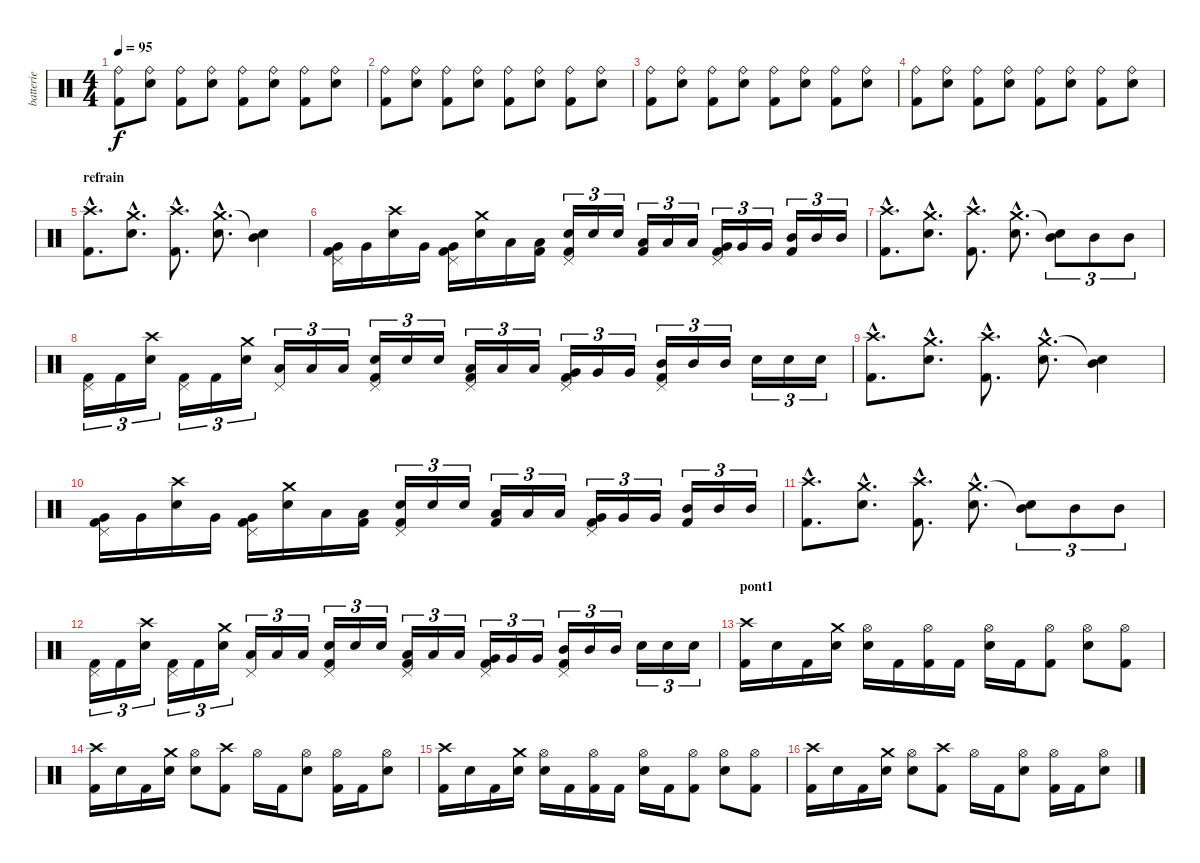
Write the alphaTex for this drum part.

\track ("batterie" "batterie") {instrument percussion}
\staff {score}
\articulation defaults
\ts (4 4)
\tempo 95
\clef neutral
\ks c
("Kick (hit) 2" "Ride (bell)").8{dy f} ("Electric Snare (hit)" "Ride (bell)").8 ("Kick (hit) 2" "Ride (bell)").8 ("Electric Snare (hit)" "Ride (bell)").8 ("Kick (hit) 2" "Ride (bell)").8 ("Electric Snare (hit)" "Ride (bell)").8 ("Kick (hit) 2" "Ride (bell)").8 ("Electric Snare (hit)" "Ride (bell)").8 |
("Kick (hit) 2" "Ride (bell)").8 ("Electric Snare (hit)" "Ride (bell)").8 ("Kick (hit) 2" "Ride (bell)").8 ("Electric Snare (hit)" "Ride (bell)").8 ("Kick (hit) 2" "Ride (bell)").8 ("Electric Snare (hit)" "Ride (bell)").8 ("Kick (hit) 2" "Ride (bell)").8 ("Electric Snare (hit)" "Ride (bell)").8 |
("Kick (hit) 2" "Ride (bell)").8 ("Electric Snare (hit)" "Ride (bell)").8 ("Kick (hit) 2" "Ride (bell)").8 ("Electric Snare (hit)" "Ride (bell)").8 ("Kick (hit) 2" "Ride (bell)").8 ("Electric Snare (hit)" "Ride (bell)").8 ("Kick (hit) 2" "Ride (bell)").8 ("Electric Snare (hit)" "Ride (bell)").8 |
("Kick (hit) 2" "Ride (bell)").8 ("Electric Snare (hit)" "Ride (bell)").8 ("Kick (hit) 2" "Ride (bell)").8 ("Electric Snare (hit)" "Ride (bell)").8 ("Kick (hit) 2" "Ride (bell)").8 ("Electric Snare (hit)" "Ride (bell)").8 ("Kick (hit) 2" "Ride (bell)").8 ("Electric Snare (hit)" "Ride (bell)").8 |
\section ("" "refrain")
("Crash high (hit)"{hac} "Kick (hit) 2"{hac}).8{d} ("Crash medium (hit)"{hac} "Electric Snare (hit)"{hac}).8{d} ("Crash high (hit)"{hac} "Kick (hit) 2"{hac}).8{d} ("Crash medium (hit)"{hac} "Electric Snare (hit)"{hac}).8{d} ("Snare (hit)"{t} "Mid Tom (hit)").4 |
("Very Low Tom (hit)" "Kick (hit) 2" "Pedal Hi-Hat (hit)").16 "Very Low Tom (hit)".16 ("Crash high (hit)" "Electric Snare (hit)").16 "Very Low Tom (hit)".16 ("Very Low Tom (hit)" "Kick (hit) 2" "Pedal Hi-Hat (hit)").16 ("Crash medium (hit)" "Electric Snare (hit)").16 "Low Tom (hit)".16 ("Low Tom (hit)" "Kick (hit) 2").16 ("Electric Snare (hit)" "Kick (hit) 2" "Pedal Hi-Hat (hit)").16{tu (3 2)} "Electric Snare (hit)".16{tu (3 2)} "Electric Snare (hit)".16{tu (3 2)} ("Low Tom (hit)" "Kick (hit) 2").16{tu (3 2)} "Low Tom (hit)".16{tu (3 2)} "Low Tom (hit)".16{tu (3 2)} ("Very Low Tom (hit)" "Kick (hit) 2" "Pedal Hi-Hat (hit)").16{tu (3 2)} "Very Low Tom (hit)".16{tu (3 2)} "Very Low Tom (hit)".16{tu (3 2)} ("Mid Tom (hit)" "Kick (hit) 2").16{tu (3 2)} "Mid Tom (hit)".16{tu (3 2)} "Mid Tom (hit)".16{tu (3 2)} |
("Crash high (hit)"{hac} "Kick (hit) 2"{hac}).8{d} ("Crash medium (hit)"{hac} "Electric Snare (hit)"{hac}).8{d} ("Crash high (hit)"{hac} "Kick (hit) 2"{hac}).8{d} ("Crash medium (hit)"{hac} "Electric Snare (hit)"{hac}).8{d} ("Snare (hit)"{t} "Mid Tom (hit)").8{tu (3 2)} "Mid Tom (hit)".8{tu (3 2)} "Mid Tom (hit)".8{tu (3 2)} |
("Kick (hit) 2" "Pedal Hi-Hat (hit)").16{tu (3 2)} "Kick (hit) 2".16{tu (3 2)} ("Crash high (hit)" "Electric Snare (hit)").16{tu (3 2)} ("Kick (hit) 2" "Pedal Hi-Hat (hit)").16{tu (3 2)} "Kick (hit) 2".16{tu (3 2)} ("Crash medium (hit)" "Electric Snare (hit)").16{tu (3 2)} ("Low Tom (hit)" "Pedal Hi-Hat (hit)").16{tu (3 2)} "Low Tom (hit)".16{tu (3 2)} "Low Tom (hit)".16{tu (3 2)} ("Electric Snare (hit)" "Kick (hit) 2" "Pedal Hi-Hat (hit)").16{tu (3 2)} "Electric Snare (hit)".16{tu (3 2)} "Electric Snare (hit)".16{tu (3 2)} ("Low Tom (hit)" "Kick (hit) 2" "Pedal Hi-Hat (hit)").16{tu (3 2)} "Low Tom (hit)".16{tu (3 2)} "Low Tom (hit)".16{tu (3 2)} ("Very Low Tom (hit)" "Kick (hit) 2" "Pedal Hi-Hat (hit)").16{tu (3 2)} "Very Low Tom (hit)".16{tu (3 2)} "Very Low Tom (hit)".16{tu (3 2)} ("Mid Tom (hit)" "Kick (hit) 2" "Pedal Hi-Hat (hit)").16{tu (3 2)} "Mid Tom (hit)".16{tu (3 2)} "Mid Tom (hit)".16{tu (3 2)} "Electric Snare (hit)".16{tu (3 2)} "Electric Snare (hit)".16{tu (3 2)} "Electric Snare (hit)".16{tu (3 2)} |
("Crash high (hit)"{hac} "Kick (hit) 2"{hac}).8{d} ("Crash medium (hit)"{hac} "Electric Snare (hit)"{hac}).8{d} ("Crash high (hit)"{hac} "Kick (hit) 2"{hac}).8{d} ("Crash medium (hit)"{hac} "Electric Snare (hit)"{hac}).8{d} ("Snare (hit)"{t} "Mid Tom (hit)").4 |
("Very Low Tom (hit)" "Kick (hit) 2" "Pedal Hi-Hat (hit)").16 "Very Low Tom (hit)".16 ("Crash high (hit)" "Electric Snare (hit)").16 "Very Low Tom (hit)".16 ("Very Low Tom (hit)" "Kick (hit) 2" "Pedal Hi-Hat (hit)").16 ("Crash medium (hit)" "Electric Snare (hit)").16 "Low Tom (hit)".16 ("Low Tom (hit)" "Kick (hit) 2").16 ("Electric Snare (hit)" "Kick (hit) 2" "Pedal Hi-Hat (hit)").16{tu (3 2)} "Electric Snare (hit)".16{tu (3 2)} "Electric Snare (hit)".16{tu (3 2)} ("Low Tom (hit)" "Kick (hit) 2").16{tu (3 2)} "Low Tom (hit)".16{tu (3 2)} "Low Tom (hit)".16{tu (3 2)} ("Very Low Tom (hit)" "Kick (hit) 2" "Pedal Hi-Hat (hit)").16{tu (3 2)} "Very Low Tom (hit)".16{tu (3 2)} "Very Low Tom (hit)".16{tu (3 2)} ("Mid Tom (hit)" "Kick (hit) 2").16{tu (3 2)} "Mid Tom (hit)".16{tu (3 2)} "Mid Tom (hit)".16{tu (3 2)} |
("Crash high (hit)"{hac} "Kick (hit) 2"{hac}).8{d} ("Crash medium (hit)"{hac} "Electric Snare (hit)"{hac}).8{d} ("Crash high (hit)"{hac} "Kick (hit) 2"{hac}).8{d} ("Crash medium (hit)"{hac} "Electric Snare (hit)"{hac}).8{d} ("Snare (hit)"{t} "Mid Tom (hit)").8{tu (3 2)} "Mid Tom (hit)".8{tu (3 2)} "Mid Tom (hit)".8{tu (3 2)} |
("Kick (hit) 2" "Pedal Hi-Hat (hit)").16{tu (3 2)} "Kick (hit) 2".16{tu (3 2)} ("Crash high (hit)" "Electric Snare (hit)").16{tu (3 2)} ("Kick (hit) 2" "Pedal Hi-Hat (hit)").16{tu (3 2)} "Kick (hit) 2".16{tu (3 2)} ("Crash medium (hit)" "Electric Snare (hit)").16{tu (3 2)} ("Low Tom (hit)" "Pedal Hi-Hat (hit)").16{tu (3 2)} "Low Tom (hit)".16{tu (3 2)} "Low Tom (hit)".16{tu (3 2)} ("Electric Snare (hit)" "Kick (hit) 2" "Pedal Hi-Hat (hit)").16{tu (3 2)} "Electric Snare (hit)".16{tu (3 2)} "Electric Snare (hit)".16{tu (3 2)} ("Low Tom (hit)" "Kick (hit) 2" "Pedal Hi-Hat (hit)").16{tu (3 2)} "Low Tom (hit)".16{tu (3 2)} "Low Tom (hit)".16{tu (3 2)} ("Very Low Tom (hit)" "Kick (hit) 2" "Pedal Hi-Hat (hit)").16{tu (3 2)} "Very Low Tom (hit)".16{tu (3 2)} "Very Low Tom (hit)".16{tu (3 2)} ("Mid Tom (hit)" "Kick (hit) 2" "Pedal Hi-Hat (hit)").16{tu (3 2)} "Mid Tom (hit)".16{tu (3 2)} "Mid Tom (hit)".16{tu (3 2)} "Electric Snare (hit)".16{tu (3 2)} "Electric Snare (hit)".16{tu (3 2)} "Electric Snare (hit)".16{tu (3 2)} |
\section ("" "pont1")
("Crash high (hit)" "Kick (hit) 2").16 "Electric Snare (hit)".16 "Kick (hit) 2".16 ("Crash medium (hit)" "Electric Snare (hit)").16 ("Electric Snare (hit)" "Hi-Hat (open)").16 "Kick (hit) 2".16 ("Kick (hit) 2" "Hi-Hat (open)").16 "Kick (hit) 2".16 ("Electric Snare (hit)" "Hi-Hat (open)").16 "Kick (hit) 2".16 ("Kick (hit) 2" "Hi-Hat (open)").8 ("Electric Snare (hit)" "Hi-Hat (open)").8 ("Kick (hit) 2" "Hi-Hat (open)").8 |
("Crash high (hit)" "Kick (hit) 2").16 "Electric Snare (hit)".16 "Kick (hit) 2".16 ("Crash medium (hit)" "Electric Snare (hit)").16 ("Electric Snare (hit)" "Hi-Hat (open)").8 ("Crash high (hit)" "Kick (hit) 2").8 "Hi-Hat (open)".16 "Kick (hit) 2".16 ("Electric Snare (hit)" "Hi-Hat (open)").8 ("Kick (hit) 2" "Hi-Hat (open)").16 "Kick (hit) 2".16 ("Electric Snare (hit)" "Hi-Hat (open)").8 |
("Crash high (hit)" "Kick (hit) 2").16 "Electric Snare (hit)".16 "Kick (hit) 2".16 ("Crash medium (hit)" "Electric Snare (hit)").16 ("Electric Snare (hit)" "Hi-Hat (open)").16 "Kick (hit) 2".16 ("Kick (hit) 2" "Hi-Hat (open)").16 "Kick (hit) 2".16 ("Electric Snare (hit)" "Hi-Hat (open)").16 "Kick (hit) 2".16 ("Kick (hit) 2" "Hi-Hat (open)").8 ("Electric Snare (hit)" "Hi-Hat (open)").8 ("Kick (hit) 2" "Hi-Hat (open)").8 |
("Crash high (hit)" "Kick (hit) 2").16 "Electric Snare (hit)".16 "Kick (hit) 2".16 ("Crash medium (hit)" "Electric Snare (hit)").16 ("Electric Snare (hit)" "Hi-Hat (open)").8 ("Crash high (hit)" "Kick (hit) 2").8 "Hi-Hat (open)".16 "Kick (hit) 2".16 ("Electric Snare (hit)" "Hi-Hat (open)").8 ("Kick (hit) 2" "Hi-Hat (open)").16 "Kick (hit) 2".16 ("Electric Snare (hit)" "Hi-Hat (open)").8
